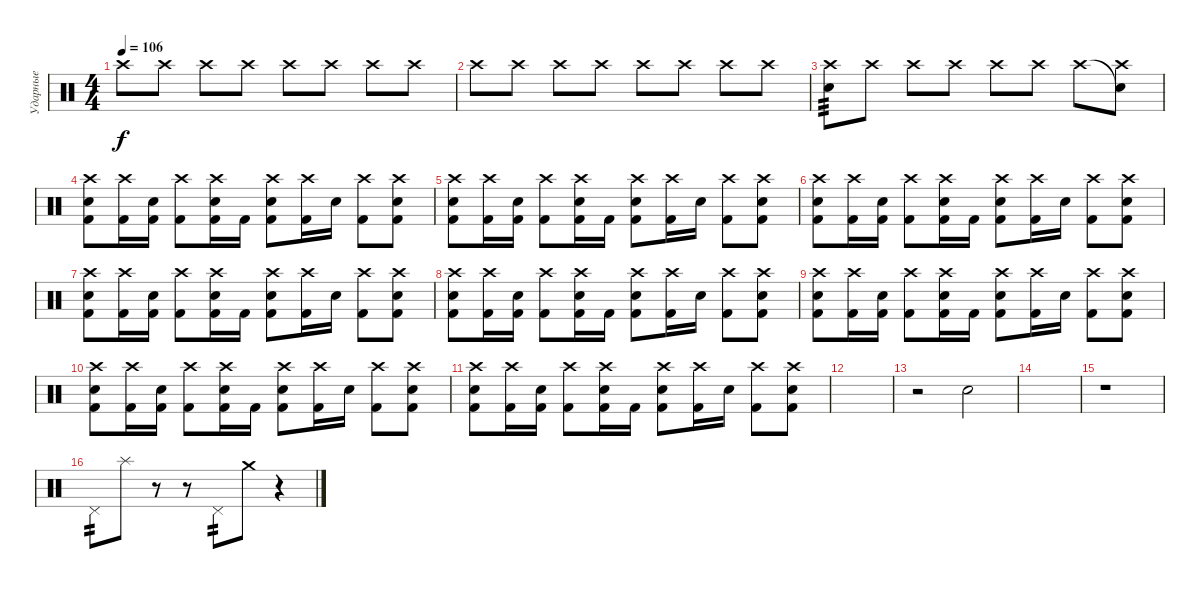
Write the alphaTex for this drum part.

\track ("Ударные" "Ударные") {instrument percussion}
\staff {score}
\articulation defaults
\ts (4 4)
\tempo 106
\clef neutral
\ks c "Crash high (hit)".8{dy f} "Crash high (hit)".8 "Crash high (hit)".8 "Crash high (hit)".8 "Crash high (hit)".8 "Crash high (hit)".8 "Crash high (hit)".8 "Crash high (hit)".8
|
"Crash high (hit)".8 "Crash high (hit)".8 "Crash high (hit)".8 "Crash high (hit)".8 "Crash high (hit)".8 "Crash high (hit)".8 "Crash high (hit)".8 "Crash high (hit)".8 |
("Electric Snare (hit)" "Crash high (hit)").8{tp 3} "Crash high (hit)".8 "Crash high (hit)".8 "Crash high (hit)".8 "Crash high (hit)".8 "Crash high (hit)".8 "Crash high (hit)".8 ("Snare (hit)"{t} "Crash high (hit)").8 |
("Kick (hit) 2" "Electric Snare (hit)" "Crash high (hit)").8 ("Kick (hit) 2" "Crash high (hit)").16 ("Kick (hit) 2" "Electric Snare (hit)").16 ("Kick (hit) 2" "Crash high (hit)").8 ("Kick (hit) 2" "Electric Snare (hit)" "Crash high (hit)").16 "Kick (hit) 2".16 ("Kick (hit) 2" "Electric Snare (hit)" "Crash high (hit)").8 ("Kick (hit) 2" "Crash high (hit)").16 "Electric Snare (hit)".16 ("Kick (hit) 2" "Crash high (hit)").8 ("Kick (hit) 2" "Electric Snare (hit)" "Crash high (hit)").8 |
("Kick (hit) 2" "Electric Snare (hit)" "Crash high (hit)").8 ("Kick (hit) 2" "Crash high (hit)").16 ("Kick (hit) 2" "Electric Snare (hit)").16 ("Kick (hit) 2" "Crash high (hit)").8 ("Kick (hit) 2" "Electric Snare (hit)" "Crash high (hit)").16 "Kick (hit) 2".16 ("Kick (hit) 2" "Electric Snare (hit)" "Crash high (hit)").8 ("Kick (hit) 2" "Crash high (hit)").16 "Electric Snare (hit)".16 ("Kick (hit) 2" "Crash high (hit)").8 ("Kick (hit) 2" "Electric Snare (hit)" "Crash high (hit)").8 |
("Kick (hit) 2" "Electric Snare (hit)" "Crash high (hit)").8 ("Kick (hit) 2" "Crash high (hit)").16 ("Kick (hit) 2" "Electric Snare (hit)").16 ("Kick (hit) 2" "Crash high (hit)").8 ("Kick (hit) 2" "Electric Snare (hit)" "Crash high (hit)").16 "Kick (hit) 2".16 ("Kick (hit) 2" "Electric Snare (hit)" "Crash high (hit)").8 ("Kick (hit) 2" "Crash high (hit)").16 "Electric Snare (hit)".16 ("Kick (hit) 2" "Crash high (hit)").8 ("Kick (hit) 2" "Electric Snare (hit)" "Crash high (hit)").8 |
("Kick (hit) 2" "Electric Snare (hit)" "Crash high (hit)").8 ("Kick (hit) 2" "Crash high (hit)").16 ("Kick (hit) 2" "Electric Snare (hit)").16 ("Kick (hit) 2" "Crash high (hit)").8 ("Kick (hit) 2" "Electric Snare (hit)" "Crash high (hit)").16 "Kick (hit) 2".16 ("Kick (hit) 2" "Electric Snare (hit)" "Crash high (hit)").8 ("Kick (hit) 2" "Crash high (hit)").16 "Electric Snare (hit)".16 ("Kick (hit) 2" "Crash high (hit)").8 ("Kick (hit) 2" "Electric Snare (hit)" "Crash high (hit)").8 |
("Kick (hit) 2" "Electric Snare (hit)" "Crash high (hit)").8 ("Kick (hit) 2" "Crash high (hit)").16 ("Kick (hit) 2" "Electric Snare (hit)").16 ("Kick (hit) 2" "Crash high (hit)").8 ("Kick (hit) 2" "Electric Snare (hit)" "Crash high (hit)").16 "Kick (hit) 2".16 ("Kick (hit) 2" "Electric Snare (hit)" "Crash high (hit)").8 ("Kick (hit) 2" "Crash high (hit)").16 "Electric Snare (hit)".16 ("Kick (hit) 2" "Crash high (hit)").8 ("Kick (hit) 2" "Electric Snare (hit)" "Crash high (hit)").8 |
("Kick (hit) 2" "Electric Snare (hit)" "Crash high (hit)").8 ("Kick (hit) 2" "Crash high (hit)").16 ("Kick (hit) 2" "Electric Snare (hit)").16 ("Kick (hit) 2" "Crash high (hit)").8 ("Kick (hit) 2" "Electric Snare (hit)" "Crash high (hit)").16 "Kick (hit) 2".16 ("Kick (hit) 2" "Electric Snare (hit)" "Crash high (hit)").8 ("Kick (hit) 2" "Crash high (hit)").16 "Electric Snare (hit)".16 ("Kick (hit) 2" "Crash high (hit)").8 ("Kick (hit) 2" "Electric Snare (hit)" "Crash high (hit)").8 |
("Kick (hit) 2" "Electric Snare (hit)" "Crash high (hit)").8 ("Kick (hit) 2" "Crash high (hit)").16 ("Kick (hit) 2" "Electric Snare (hit)").16 ("Kick (hit) 2" "Crash high (hit)").8 ("Kick (hit) 2" "Electric Snare (hit)" "Crash high (hit)").16 "Kick (hit) 2".16 ("Kick (hit) 2" "Electric Snare (hit)" "Crash high (hit)").8 ("Kick (hit) 2" "Crash high (hit)").16 "Electric Snare (hit)".16 ("Kick (hit) 2" "Crash high (hit)").8 ("Kick (hit) 2" "Electric Snare (hit)" "Crash high (hit)").8 |
("Kick (hit) 2" "Electric Snare (hit)" "Crash high (hit)").8 ("Kick (hit) 2" "Crash high (hit)").16 ("Kick (hit) 2" "Electric Snare (hit)").16 ("Kick (hit) 2" "Crash high (hit)").8 ("Kick (hit) 2" "Electric Snare (hit)" "Crash high (hit)").16 "Kick (hit) 2".16 ("Kick (hit) 2" "Electric Snare (hit)" "Crash high (hit)").8 ("Kick (hit) 2" "Crash high (hit)").16 "Electric Snare (hit)".16 ("Kick (hit) 2" "Crash high (hit)").8 ("Kick (hit) 2" "Electric Snare (hit)" "Crash high (hit)").8 |
|
r.2 "Electric Snare (hit)".2 |
|
r.1 |
"Pedal Hi-Hat (hit)".8{tp 2} "Splash (hit)".8 r.8 r.8 "Pedal Hi-Hat (hit)".8{tp 2} "Crash medium (hit)".8 r.4
